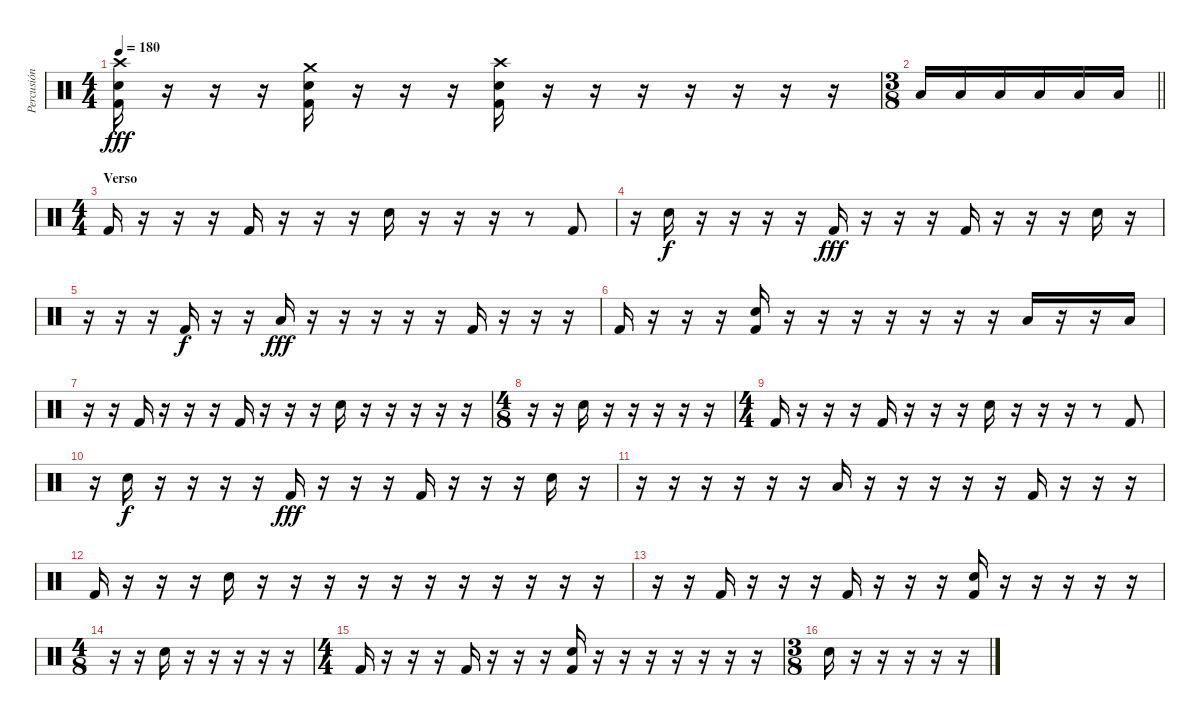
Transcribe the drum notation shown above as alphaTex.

\track ("Percusión" "Percusión") {instrument percussion}
\staff {score}
\articulation defaults
\ts (4 4)
\tempo 180
\clef neutral
\ks c
("Crash high (hit)" "Snare (hit) 2" "Kick (hit) 2").16{dy fff} r.16 r.16 r.16 ("Crash medium (hit)" "Snare (hit) 2" "Kick (hit) 2").16 r.16 r.16 r.16 ("Crash high (hit)" "Snare (hit) 2" "Kick (hit) 2").16 r.16 r.16 r.16 r.16 r.16 r.16 r.16 |
\ts (3 8)
\barLineRight lightlight "Low Tom (hit)".16 "Low Tom (hit)".16 "Low Tom (hit)".16 "Low Tom (hit)".16 "Low Tom (hit)".16 "Low Tom (hit)".16
|
\ts (4 4)
\section ("" "Verso")
"Kick (hit) 2".16 r.16 r.16 r.16 "Kick (hit) 2".16 r.16 r.16 r.16 "Snare (hit) 2".16 r.16 r.16 r.16 r.8 "Kick (hit) 2".8 |
r.16 "Snare (hit) 2".16{dy f} r.16 r.16 r.16 r.16 "Kick (hit) 2".16{dy fff} r.16 r.16 r.16 "Kick (hit) 2".16 r.16 r.16 r.16 "Snare (hit) 2".16 r.16 |
r.16 r.16 r.16 "Kick (hit) 2".16{dy f} r.16 r.16 "Low Tom (hit)".16{dy fff} r.16 r.16 r.16 r.16 r.16 "Kick (hit) 2".16 r.16 r.16 r.16 |
"Kick (hit) 2".16 r.16 r.16 r.16 ("Snare (hit) 2" "Kick (hit) 2").16 r.16 r.16 r.16 r.16 r.16 r.16 r.16 "Low Tom (hit)".16 r.16 r.16 "Low Tom (hit)".16 |
r.16 r.16 "Kick (hit) 2".16 r.16 r.16 r.16 "Kick (hit) 2".16 r.16 r.16 r.16 "Snare (hit) 2".16 r.16 r.16 r.16 r.16 r.16 |
\ts (4 8)
r.16 r.16 "Snare (hit) 2".16 r.16 r.16 r.16 r.16 r.16 |
\ts (4 4)
"Kick (hit) 2".16 r.16 r.16 r.16 "Kick (hit) 2".16 r.16 r.16 r.16 "Snare (hit) 2".16 r.16 r.16 r.16 r.8 "Kick (hit) 2".8 |
r.16 "Snare (hit) 2".16{dy f} r.16 r.16 r.16 r.16 "Kick (hit) 2".16{dy fff} r.16 r.16 r.16 "Kick (hit) 2".16 r.16 r.16 r.16 "Snare (hit) 2".16 r.16 |
r.16 r.16 r.16 r.16 r.16 r.16 "Low Tom (hit)".16 r.16 r.16 r.16 r.16 r.16 "Kick (hit) 2".16 r.16 r.16 r.16 |
"Kick (hit) 2".16 r.16 r.16 r.16 "Snare (hit) 2".16 r.16 r.16 r.16 r.16 r.16 r.16 r.16 r.16 r.16 r.16 r.16 |
r.16 r.16 "Kick (hit) 2".16 r.16 r.16 r.16 "Kick (hit) 2".16 r.16 r.16 r.16 ("Snare (hit) 2" "Kick (hit) 2").16 r.16 r.16 r.16 r.16 r.16 |
\ts (4 8)
r.16 r.16 "Snare (hit) 2".16 r.16 r.16 r.16 r.16 r.16 |
\ts (4 4)
"Kick (hit) 2".16 r.16 r.16 r.16 "Kick (hit) 2".16 r.16 r.16 r.16 ("Snare (hit) 2" "Kick (hit) 2").16 r.16 r.16 r.16 r.16 r.16 r.16 r.16 |
\ts (3 8)
"Snare (hit) 2".16 r.16 r.16 r.16 r.16 r.16
